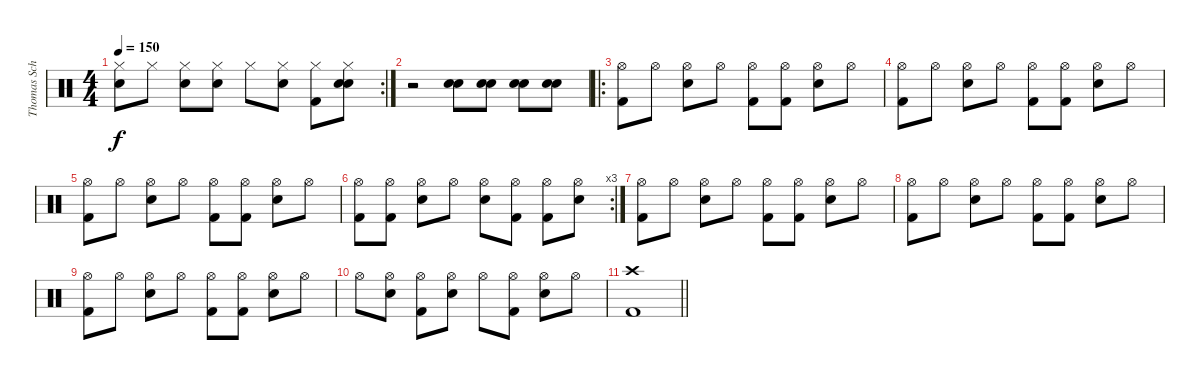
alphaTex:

\track ("Thomas Schnitzler" "Thomas Sch") {instrument percussion}
\staff {score}
\articulation defaults
\rc 2
\ts (4 4)
\tempo 150
\clef neutral
\ks c
("Hi-Hat (closed)" "Snare (hit) 2").8{dy f} "Hi-Hat (closed)".8 ("Hi-Hat (closed)" "Snare (hit) 2").8 ("Hi-Hat (closed)" "Snare (hit) 2").8 "Hi-Hat (closed)".8 ("Hi-Hat (closed)" "Snare (hit) 2").8 ("Hi-Hat (closed)" "Kick (hit) 2").8 ("Hi-Hat (closed)" "Snare (hit) 2" "Snare (hit) 2").8 |
r.2 ("Snare (hit) 2" "Snare (hit) 2").8 ("Snare (hit) 2" "Snare (hit) 2").8 ("Snare (hit) 2" "Snare (hit) 2").8 ("Snare (hit) 2" "Snare (hit) 2").8 |
\ro
("Hi-Hat (open)" "Kick (hit) 2").8 "Hi-Hat (open)".8 ("Hi-Hat (open)" "Snare (hit) 2").8 "Hi-Hat (open)".8 ("Hi-Hat (open)" "Kick (hit) 2").8 ("Hi-Hat (open)" "Kick (hit) 2").8 ("Hi-Hat (open)" "Snare (hit) 2").8 "Hi-Hat (open)".8 |
("Hi-Hat (open)" "Kick (hit) 2").8 "Hi-Hat (open)".8 ("Hi-Hat (open)" "Snare (hit) 2").8 "Hi-Hat (open)".8 ("Hi-Hat (open)" "Kick (hit) 2").8 ("Hi-Hat (open)" "Kick (hit) 2").8 ("Hi-Hat (open)" "Snare (hit) 2").8 "Hi-Hat (open)".8 |
("Hi-Hat (open)" "Kick (hit) 2").8 "Hi-Hat (open)".8 ("Hi-Hat (open)" "Snare (hit) 2").8 "Hi-Hat (open)".8 ("Hi-Hat (open)" "Kick (hit) 2").8 ("Hi-Hat (open)" "Kick (hit) 2").8 ("Hi-Hat (open)" "Snare (hit) 2").8 "Hi-Hat (open)".8 |
\rc 3
("Hi-Hat (open)" "Kick (hit) 2").8 ("Hi-Hat (open)" "Kick (hit) 2").8 ("Hi-Hat (open)" "Snare (hit) 2").8 "Hi-Hat (open)".8 ("Hi-Hat (open)" "Snare (hit) 2").8 ("Hi-Hat (open)" "Kick (hit) 2").8 ("Hi-Hat (open)" "Kick (hit) 2").8 ("Hi-Hat (open)" "Snare (hit) 2").8 |
("Hi-Hat (open)" "Kick (hit) 2").8 "Hi-Hat (open)".8 ("Hi-Hat (open)" "Snare (hit) 2").8 "Hi-Hat (open)".8 ("Hi-Hat (open)" "Kick (hit) 2").8 ("Hi-Hat (open)" "Kick (hit) 2").8 ("Hi-Hat (open)" "Snare (hit) 2").8 "Hi-Hat (open)".8 |
("Hi-Hat (open)" "Kick (hit) 2").8 "Hi-Hat (open)".8 ("Hi-Hat (open)" "Snare (hit) 2").8 "Hi-Hat (open)".8 ("Hi-Hat (open)" "Kick (hit) 2").8 ("Hi-Hat (open)" "Kick (hit) 2").8 ("Hi-Hat (open)" "Snare (hit) 2").8 "Hi-Hat (open)".8 |
("Hi-Hat (open)" "Kick (hit) 2").8 "Hi-Hat (open)".8 ("Hi-Hat (open)" "Snare (hit) 2").8 "Hi-Hat (open)".8 ("Hi-Hat (open)" "Kick (hit) 2").8 ("Hi-Hat (open)" "Kick (hit) 2").8 ("Hi-Hat (open)" "Snare (hit) 2").8 "Hi-Hat (open)".8 |
"Hi-Hat (open)".8 ("Hi-Hat (open)" "Snare (hit) 2").8 ("Hi-Hat (open)" "Kick (hit) 2").8 ("Hi-Hat (open)" "Snare (hit) 2").8 "Hi-Hat (open)".8 ("Hi-Hat (open)" "Kick (hit) 2").8 ("Hi-Hat (open)" "Snare (hit) 2").8 "Hi-Hat (open)".8 |
\barLineRight lightlight
("Crash high (hit)" "Kick (hit) 2").1
